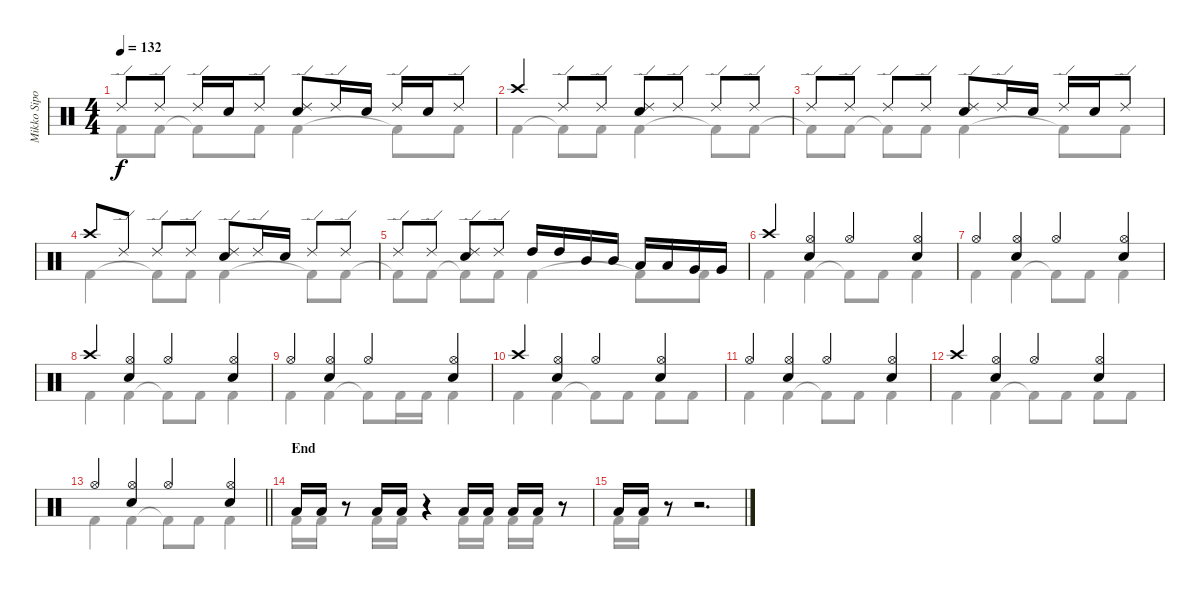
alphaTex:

\track ("Mikko Sipola (drums)" "Mikko Sipo") {instrument percussion}
\staff {score}
\articulation defaults
\voice
\ts (4 4)
\tempo 132
\clef neutral
\ks c "Ride (edge) 2".8{dy f} "Ride (edge) 2".8 "Ride (edge) 2".16 "Electric Snare (hit)".16 "Ride (edge) 2".8
("Ride (edge) 2" "Electric Snare (hit)").8 "Ride (edge) 2".16 "Electric Snare (hit)".16 "Ride (edge) 2".16 "Electric Snare (hit)".16 "Ride (edge) 2".8 |
"Crash high (hit)".4 "Ride (edge) 2".8 "Ride (edge) 2".8 ("Ride (edge) 2" "Electric Snare (hit)").8 "Ride (edge) 2".8 "Ride (edge) 2".8 "Ride (edge) 2".8 |
"Ride (edge) 2".8 "Ride (edge) 2".8 "Ride (edge) 2".8 "Ride (edge) 2".8 ("Ride (edge) 2" "Electric Snare (hit)").8 "Ride (edge) 2".16 "Electric Snare (hit)".16 "Ride (edge) 2".16 "Electric Snare (hit)".16 "Ride (edge) 2".8 |
"Crash high (hit)".8 "Ride (edge) 2".8 "Ride (edge) 2".8 "Ride (edge) 2".8 ("Ride (edge) 2" "Electric Snare (hit)").8 "Ride (edge) 2".16 "Electric Snare (hit)".16 "Ride (edge) 2".8 "Ride (edge) 2".8 |
"Ride (edge) 2".8 "Ride (edge) 2".8 ("Ride (edge) 2" "Electric Snare (hit)").8 "Ride (edge) 2".8 "High Tom (hit)".16 "High Tom (hit)".16 "Mid Tom (hit)".16 "Mid Tom (hit)".16 "Low Tom (hit)".16 "Low Tom (hit)".16 "Very Low Tom (hit)".16 "Very Low Tom (hit)".16 |
"Crash high (hit)".4 ("Hi-Hat (open)" "Electric Snare (hit)").4 "Hi-Hat (open)".4 ("Hi-Hat (open)" "Electric Snare (hit)").4 |
"Hi-Hat (open)".4 ("Hi-Hat (open)" "Electric Snare (hit)").4 "Hi-Hat (open)".4 ("Hi-Hat (open)" "Electric Snare (hit)").4 |
"Crash high (hit)".4 ("Hi-Hat (open)" "Electric Snare (hit)").4 "Hi-Hat (open)".4 ("Hi-Hat (open)" "Electric Snare (hit)").4 |
"Hi-Hat (open)".4 ("Hi-Hat (open)" "Electric Snare (hit)").4 "Hi-Hat (open)".4 ("Hi-Hat (open)" "Electric Snare (hit)").4 |
"Crash high (hit)".4 ("Hi-Hat (open)" "Electric Snare (hit)").4 "Hi-Hat (open)".4 ("Hi-Hat (open)" "Electric Snare (hit)").4 |
"Hi-Hat (open)".4 ("Hi-Hat (open)" "Electric Snare (hit)").4 "Hi-Hat (open)".4 ("Hi-Hat (open)" "Electric Snare (hit)").4 |
"Crash high (hit)".4 ("Hi-Hat (open)" "Electric Snare (hit)").4 "Hi-Hat (open)".4 ("Hi-Hat (open)" "Electric Snare (hit)").4 |
\barLineRight lightlight "Hi-Hat (open)".4
("Hi-Hat (open)" "Electric Snare (hit)").4 "Hi-Hat (open)".4 ("Hi-Hat (open)" "Electric Snare (hit)").4 |
\section ("" "End")
\ks aminor "Low Tom (hit)".16 "Low Tom (hit)".16
r.8 "Low Tom (hit)".16 "Low Tom (hit)".16 r.4 "Low Tom (hit)".16 "Low Tom (hit)".16 "Low Tom (hit)".16 "Low Tom (hit)".16 r.8 |
"Low Tom (hit)".16 "Low Tom (hit)".16 r.8 r.2{d}
\voice
\clef neutral
\ottava regular
\simile none
\ks c "Kick (hit) 2"{t}.8{dy f} "Kick (hit) 2".8 "Kick (hit) 2"{t}.8 "Kick (hit) 2".8 "Kick (hit) 2".4 "Kick (hit) 2"{t}.8 "Kick (hit) 2".8
|
"Kick (hit) 2".4 "Kick (hit) 2"{t}.8 "Kick (hit) 2".8 "Kick (hit) 2".4 "Kick (hit) 2"{t}.8 "Kick (hit) 2".8 |
"Kick (hit) 2"{t}.8 "Kick (hit) 2".8 "Kick (hit) 2"{t}.8 "Kick (hit) 2".8 "Kick (hit) 2".4 "Kick (hit) 2"{t}.8 "Kick (hit) 2".8 |
"Kick (hit) 2".4 "Kick (hit) 2"{t}.8 "Kick (hit) 2".8 "Kick (hit) 2".4 "Kick (hit) 2"{t}.8 "Kick (hit) 2".8 |
"Kick (hit) 2"{t}.8 "Kick (hit) 2".8 "Kick (hit) 2"{t}.8 "Kick (hit) 2".8 "Kick (hit) 2".4 "Kick (hit) 2"{t}.8 "Kick (hit) 2".8 |
"Kick (hit) 2".4 "Kick (hit) 2".4 "Kick (hit) 2"{t}.8 "Kick (hit) 2".8 "Kick (hit) 2".4 |
"Kick (hit) 2".4 "Kick (hit) 2".4 "Kick (hit) 2"{t}.8 "Kick (hit) 2".8 "Kick (hit) 2".4 |
"Kick (hit) 2".4 "Kick (hit) 2".4 "Kick (hit) 2"{t}.8 "Kick (hit) 2".8 "Kick (hit) 2".4 |
"Kick (hit) 2".4 "Kick (hit) 2".4 "Kick (hit) 2"{t}.8 "Kick (hit) 2".16 "Kick (hit) 2".16 "Kick (hit) 2".4 |
"Kick (hit) 2".4 "Kick (hit) 2".4 "Kick (hit) 2"{t}.8 "Kick (hit) 2".8 "Kick (hit) 2".8 "Kick (hit) 2".8 |
"Kick (hit) 2".4 "Kick (hit) 2".4 "Kick (hit) 2"{t}.8 "Kick (hit) 2".8 "Kick (hit) 2".4 |
"Kick (hit) 2".4 "Kick (hit) 2".4 "Kick (hit) 2"{t}.8 "Kick (hit) 2".8 "Kick (hit) 2".8 "Kick (hit) 2".8 |
\barLineRight lightlight "Kick (hit) 2".4 "Kick (hit) 2".4 "Kick (hit) 2"{t}.8 "Kick (hit) 2".8 "Kick (hit) 2".4
|
\ks aminor "Kick (hit) 2".16 "Kick (hit) 2".16
r.8 "Kick (hit) 2".16 "Kick (hit) 2".16 r.4 "Kick (hit) 2".16 "Kick (hit) 2".16 "Kick (hit) 2".16 "Kick (hit) 2".16 r.8 |
"Kick (hit) 2".16 "Kick (hit) 2".16 r.8 r.2{d}
